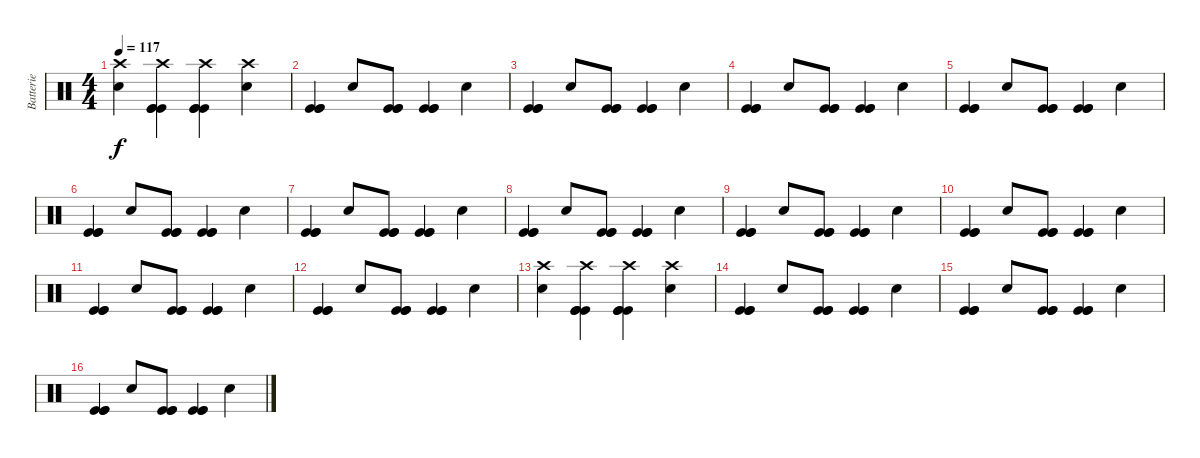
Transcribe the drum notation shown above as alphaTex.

\track ("Batterie" "Batterie") {instrument percussion}
\staff {score}
\articulation defaults
\ts (4 4)
\tempo 117
\clef neutral
\ks c
("Electric Snare (hit)" "Crash high (hit)").4{dy f} ("Kick (hit)" "Kick (hit)" "Kick (hit)" "Crash high (hit)").4 ("Kick (hit)" "Kick (hit)" "Kick (hit)" "Crash high (hit)").4 ("Electric Snare (hit)" "Crash high (hit)").4 |
("Kick (hit)" "Kick (hit)" "Kick (hit)").4 "Electric Snare (hit)".8 ("Kick (hit)" "Kick (hit)" "Kick (hit)").8 ("Kick (hit)" "Kick (hit)" "Kick (hit)").4 "Electric Snare (hit)".4 |
("Kick (hit)" "Kick (hit)" "Kick (hit)").4 "Electric Snare (hit)".8 ("Kick (hit)" "Kick (hit)" "Kick (hit)").8 ("Kick (hit)" "Kick (hit)" "Kick (hit)").4 "Electric Snare (hit)".4 |
("Kick (hit)" "Kick (hit)" "Kick (hit)").4 "Electric Snare (hit)".8 ("Kick (hit)" "Kick (hit)" "Kick (hit)").8 ("Kick (hit)" "Kick (hit)" "Kick (hit)").4 "Electric Snare (hit)".4 |
("Kick (hit)" "Kick (hit)" "Kick (hit)").4 "Electric Snare (hit)".8 ("Kick (hit)" "Kick (hit)" "Kick (hit)").8 ("Kick (hit)" "Kick (hit)" "Kick (hit)").4 "Electric Snare (hit)".4 |
("Kick (hit)" "Kick (hit)" "Kick (hit)").4 "Electric Snare (hit)".8 ("Kick (hit)" "Kick (hit)" "Kick (hit)").8 ("Kick (hit)" "Kick (hit)" "Kick (hit)").4 "Electric Snare (hit)".4 |
("Kick (hit)" "Kick (hit)" "Kick (hit)").4 "Electric Snare (hit)".8 ("Kick (hit)" "Kick (hit)" "Kick (hit)").8 ("Kick (hit)" "Kick (hit)" "Kick (hit)").4 "Electric Snare (hit)".4 |
("Kick (hit)" "Kick (hit)" "Kick (hit)").4 "Electric Snare (hit)".8 ("Kick (hit)" "Kick (hit)" "Kick (hit)").8 ("Kick (hit)" "Kick (hit)" "Kick (hit)").4 "Electric Snare (hit)".4 |
("Kick (hit)" "Kick (hit)" "Kick (hit)").4 "Electric Snare (hit)".8 ("Kick (hit)" "Kick (hit)" "Kick (hit)").8 ("Kick (hit)" "Kick (hit)" "Kick (hit)").4 "Electric Snare (hit)".4 |
("Kick (hit)" "Kick (hit)" "Kick (hit)").4 "Electric Snare (hit)".8 ("Kick (hit)" "Kick (hit)" "Kick (hit)").8 ("Kick (hit)" "Kick (hit)" "Kick (hit)").4 "Electric Snare (hit)".4 |
("Kick (hit)" "Kick (hit)" "Kick (hit)").4 "Electric Snare (hit)".8 ("Kick (hit)" "Kick (hit)" "Kick (hit)").8 ("Kick (hit)" "Kick (hit)" "Kick (hit)").4 "Electric Snare (hit)".4 |
("Kick (hit)" "Kick (hit)" "Kick (hit)").4 "Electric Snare (hit)".8 ("Kick (hit)" "Kick (hit)" "Kick (hit)").8 ("Kick (hit)" "Kick (hit)" "Kick (hit)").4 "Electric Snare (hit)".4 |
("Electric Snare (hit)" "Crash high (hit)").4 ("Kick (hit)" "Kick (hit)" "Kick (hit)" "Crash high (hit)").4 ("Kick (hit)" "Kick (hit)" "Kick (hit)" "Crash high (hit)").4 ("Electric Snare (hit)" "Crash high (hit)").4 |
("Kick (hit)" "Kick (hit)" "Kick (hit)").4 "Electric Snare (hit)".8 ("Kick (hit)" "Kick (hit)" "Kick (hit)").8 ("Kick (hit)" "Kick (hit)" "Kick (hit)").4 "Electric Snare (hit)".4 |
("Kick (hit)" "Kick (hit)" "Kick (hit)").4 "Electric Snare (hit)".8 ("Kick (hit)" "Kick (hit)" "Kick (hit)").8 ("Kick (hit)" "Kick (hit)" "Kick (hit)").4 "Electric Snare (hit)".4 |
("Kick (hit)" "Kick (hit)" "Kick (hit)").4 "Electric Snare (hit)".8 ("Kick (hit)" "Kick (hit)" "Kick (hit)").8 ("Kick (hit)" "Kick (hit)" "Kick (hit)").4 "Electric Snare (hit)".4
